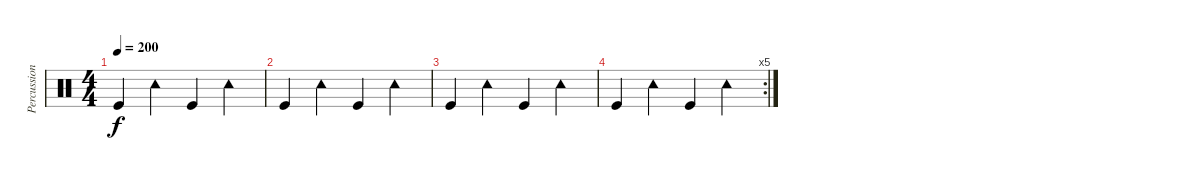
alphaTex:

\track ("Percussions" "Percussion") {instrument percussion}
\staff {score}
\articulation defaults
\ts (4 4)
\tempo 200
\clef neutral
\ks c "Kick (hit)".4{dy f} "Tambourine (hit)".4 "Kick (hit)".4 "Tambourine (hit)".4
|
"Kick (hit)".4 "Tambourine (hit)".4 "Kick (hit)".4 "Tambourine (hit)".4 |
"Kick (hit)".4 "Tambourine (hit)".4 "Kick (hit)".4 "Tambourine (hit)".4 |
\rc 5 "Kick (hit)".4 "Tambourine (hit)".4 "Kick (hit)".4 "Tambourine (hit)".4
